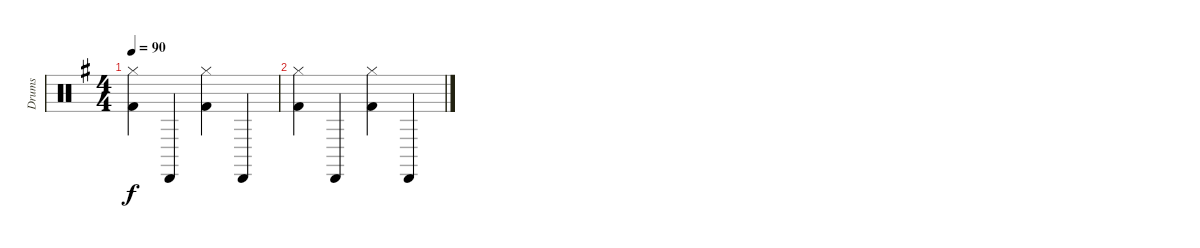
\track ("Drums" "Drums") {instrument percussion}
\staff {score}
\articulation defaults
\ts (4 4)
\tempo 90
\clef neutral
\ks g
("Kick (hit) 2" "Hi-Hat (closed)").4{dy f} "Cabasa (hit)".4 ("Kick (hit) 2" "Hi-Hat (closed)").4 "Cabasa (hit)".4 |
("Kick (hit) 2" "Hi-Hat (closed)").4 "Cabasa (hit)".4 ("Kick (hit) 2" "Hi-Hat (closed)").4 "Cabasa (hit)".4
